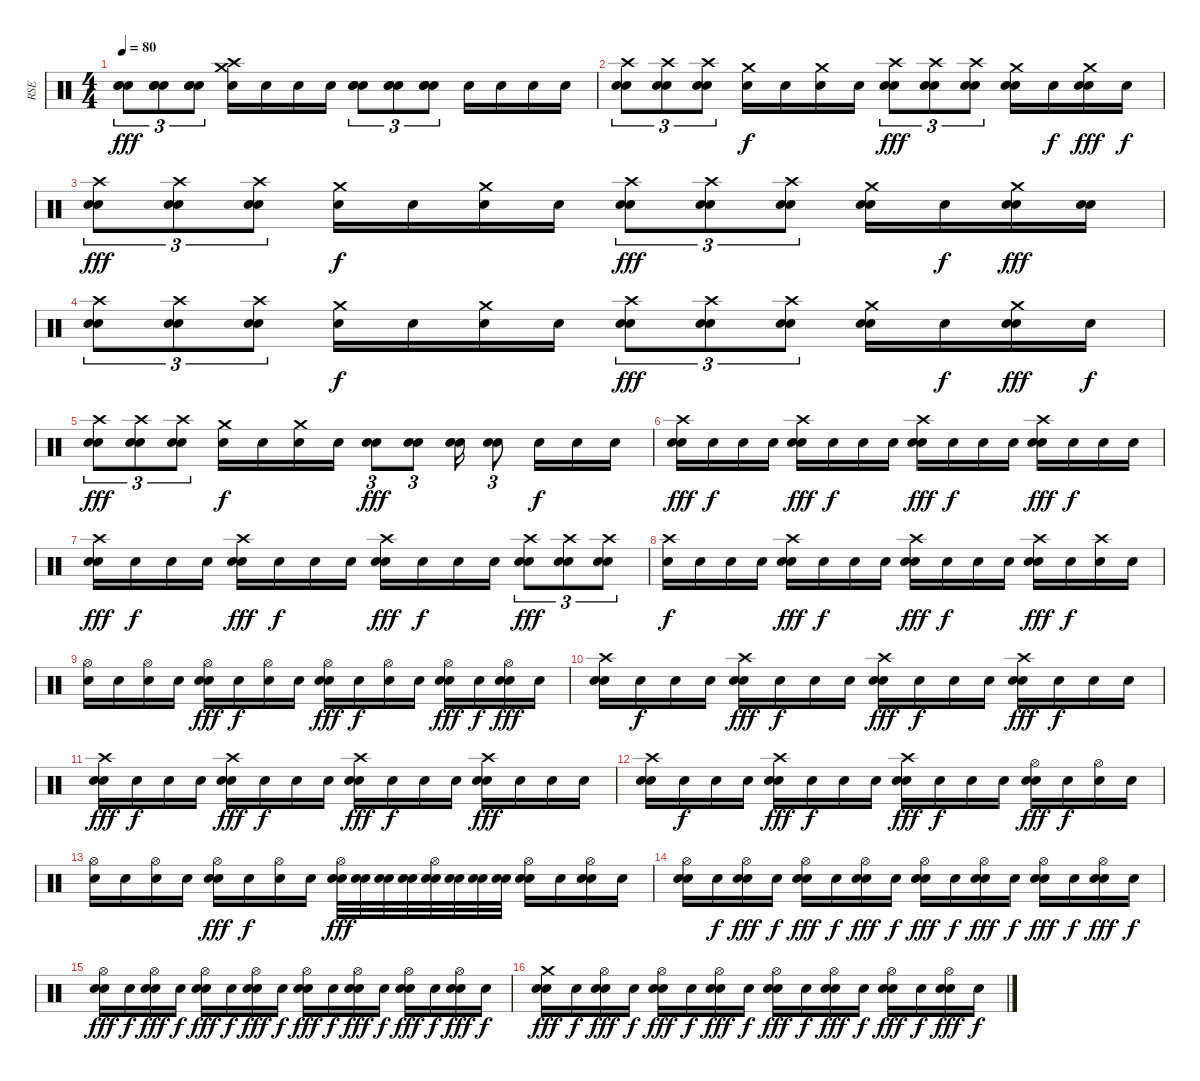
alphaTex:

\track ("RSE" "RSE") {instrument percussion}
\staff
\articulation defaults
\ts (4 4)
\tempo 80
\clef neutral
\ks c
("Snare (hit) 2" "Electric Snare (hit)" "Snare (hit)").8{tu (3 2) dy fff} ("Snare (hit) 2" "Electric Snare (hit)" "Snare (hit)").8{tu (3 2)} ("Snare (hit) 2" "Electric Snare (hit)" "Snare (hit)").8{tu (3 2)} ("Crash high (hit)" "Crash medium (hit)" "Snare (hit)").16 "Snare (hit)".16 "Snare (hit)".16 "Snare (hit)".16 ("Snare (hit) 2" "Electric Snare (hit)" "Snare (hit)").8{tu (3 2)} ("Snare (hit) 2" "Electric Snare (hit)" "Snare (hit)").8{tu (3 2)} ("Snare (hit) 2" "Electric Snare (hit)" "Snare (hit)").8{tu (3 2)} "Snare (hit)".16 "Snare (hit)".16 "Snare (hit)".16 "Snare (hit)".16 |
("Crash high (hit)" "Electric Snare (hit)" "Snare (hit)").8{tu (3 2)} ("Crash high (hit)" "Electric Snare (hit)" "Snare (hit)").8{tu (3 2)} ("Crash high (hit)" "Electric Snare (hit)" "Snare (hit)").8{tu (3 2)} ("Crash medium (hit)" "Snare (hit)").16{dy f} "Snare (hit)".16 ("Crash medium (hit)" "Snare (hit)").16 "Snare (hit)".16 ("Crash high (hit)" "Electric Snare (hit)" "Snare (hit)").8{tu (3 2) dy fff} ("Crash high (hit)" "Electric Snare (hit)" "Snare (hit)").8{tu (3 2)} ("Crash high (hit)" "Electric Snare (hit)" "Snare (hit)").8{tu (3 2)} ("Crash medium (hit)" "Electric Snare (hit)" "Snare (hit)").16 "Snare (hit)".16{dy f} ("Crash medium (hit)" "Electric Snare (hit)" "Snare (hit)").16{dy fff} "Snare (hit)".16{dy f} |
("Crash high (hit)" "Electric Snare (hit)" "Snare (hit)").8{tu (3 2) dy fff} ("Crash high (hit)" "Electric Snare (hit)" "Snare (hit)").8{tu (3 2)} ("Crash high (hit)" "Electric Snare (hit)" "Snare (hit)").8{tu (3 2)} ("Crash medium (hit)" "Snare (hit)").16{dy f} "Snare (hit)".16 ("Crash medium (hit)" "Snare (hit)").16 "Snare (hit)".16 ("Crash high (hit)" "Electric Snare (hit)" "Snare (hit)").8{tu (3 2) dy fff} ("Crash high (hit)" "Electric Snare (hit)" "Snare (hit)").8{tu (3 2)} ("Crash high (hit)" "Electric Snare (hit)" "Snare (hit)").8{tu (3 2)} ("Crash medium (hit)" "Electric Snare (hit)" "Snare (hit)").16 "Snare (hit)".16{dy f} ("Crash medium (hit)" "Electric Snare (hit)" "Snare (hit)").16{dy fff} ("Electric Snare (hit)" "Snare (hit)").16 |
("Crash high (hit)" "Electric Snare (hit)" "Snare (hit)").8{tu (3 2)} ("Crash high (hit)" "Electric Snare (hit)" "Snare (hit)").8{tu (3 2)} ("Crash high (hit)" "Electric Snare (hit)" "Snare (hit)").8{tu (3 2)} ("Crash medium (hit)" "Snare (hit)").16{dy f} "Snare (hit)".16 ("Crash medium (hit)" "Snare (hit)").16 "Snare (hit)".16 ("Crash high (hit)" "Electric Snare (hit)" "Snare (hit)").8{tu (3 2) dy fff} ("Crash high (hit)" "Electric Snare (hit)" "Snare (hit)").8{tu (3 2)} ("Crash high (hit)" "Electric Snare (hit)" "Snare (hit)").8{tu (3 2)} ("Crash medium (hit)" "Electric Snare (hit)" "Snare (hit)").16 "Snare (hit)".16{dy f} ("Crash medium (hit)" "Electric Snare (hit)" "Snare (hit)").16{dy fff} "Snare (hit)".16{dy f} |
("Crash high (hit)" "Electric Snare (hit)" "Snare (hit)").8{tu (3 2) dy fff} ("Crash high (hit)" "Electric Snare (hit)" "Snare (hit)").8{tu (3 2)} ("Crash high (hit)" "Electric Snare (hit)" "Snare (hit)").8{tu (3 2)} ("Crash medium (hit)" "Snare (hit)").16{dy f} "Snare (hit)".16 ("Crash medium (hit)" "Snare (hit)").16 "Snare (hit)".16 ("Electric Snare (hit)" "Snare (hit)").8{tu (3 2) dy fff} ("Electric Snare (hit)" "Snare (hit)").8{tu (3 2)} ("Electric Snare (hit)" "Snare (hit)").16 ("Electric Snare (hit)" "Snare (hit)").8{tu (3 2)} "Snare (hit)".16{dy f} "Snare (hit)".16 "Snare (hit)".16 |
("Crash high (hit)" "Electric Snare (hit)" "Snare (hit)").16{dy fff} "Snare (hit)".16{dy f} "Snare (hit)".16 "Snare (hit)".16 ("Crash high (hit)" "Electric Snare (hit)" "Snare (hit)").16{dy fff} "Snare (hit)".16{dy f} "Snare (hit)".16 "Snare (hit)".16 ("Crash high (hit)" "Electric Snare (hit)" "Snare (hit)").16{dy fff} "Snare (hit)".16{dy f} "Snare (hit)".16 "Snare (hit)".16 ("Crash high (hit)" "Electric Snare (hit)" "Snare (hit)").16{dy fff} "Snare (hit)".16{dy f} "Snare (hit)".16 "Snare (hit)".16 |
("Crash high (hit)" "Electric Snare (hit)" "Snare (hit)").16{dy fff} "Snare (hit)".16{dy f} "Snare (hit)".16 "Snare (hit)".16 ("Crash high (hit)" "Electric Snare (hit)" "Snare (hit)").16{dy fff} "Snare (hit)".16{dy f} "Snare (hit)".16 "Snare (hit)".16 ("Crash high (hit)" "Electric Snare (hit)" "Snare (hit)").16{dy fff} "Snare (hit)".16{dy f} "Snare (hit)".16 "Snare (hit)".16 ("Crash high (hit)" "Electric Snare (hit)" "Snare (hit)").8{tu (3 2) dy fff} ("Crash high (hit)" "Electric Snare (hit)" "Snare (hit)").8{tu (3 2)} ("Crash high (hit)" "Electric Snare (hit)" "Snare (hit)").8{tu (3 2)} |
("Crash high (hit)" "Snare (hit)").16{dy f} "Snare (hit)".16 "Snare (hit)".16 "Snare (hit)".16 ("Crash high (hit)" "Electric Snare (hit)" "Snare (hit)").16{dy fff} "Snare (hit)".16{dy f} "Snare (hit)".16 "Snare (hit)".16 ("Crash high (hit)" "Electric Snare (hit)" "Snare (hit)").16{dy fff} "Snare (hit)".16{dy f} "Snare (hit)".16 "Snare (hit)".16 ("Crash high (hit)" "Electric Snare (hit)" "Snare (hit)").16{dy fff} "Snare (hit)".16{dy f} ("Crash high (hit)" "Snare (hit)").16 "Snare (hit)".16 |
("Hi-Hat (open)" "Snare (hit)").16 "Snare (hit)".16 ("Hi-Hat (open)" "Snare (hit)").16 "Snare (hit)".16 ("Hi-Hat (open)" "Electric Snare (hit)" "Snare (hit)").16{dy fff} "Snare (hit)".16{dy f} ("Hi-Hat (open)" "Snare (hit)").16 "Snare (hit)".16 ("Hi-Hat (open)" "Electric Snare (hit)" "Snare (hit)").16{dy fff} "Snare (hit)".16{dy f} ("Hi-Hat (open)" "Snare (hit)").16 "Snare (hit)".16 ("Hi-Hat (open)" "Electric Snare (hit)" "Snare (hit)").16{dy fff} "Snare (hit)".16{dy f} ("Hi-Hat (open)" "Electric Snare (hit)" "Snare (hit)").16{dy fff} "Snare (hit)".16 |
("Crash high (hit)" "Electric Snare (hit)" "Snare (hit)").16 "Snare (hit)".16{dy f} "Snare (hit)".16 "Snare (hit)".16 ("Crash high (hit)" "Electric Snare (hit)" "Snare (hit)").16{dy fff} "Snare (hit)".16{dy f} "Snare (hit)".16 "Snare (hit)".16 ("Crash high (hit)" "Electric Snare (hit)" "Snare (hit)").16{dy fff} "Snare (hit)".16{dy f} "Snare (hit)".16 "Snare (hit)".16 ("Crash high (hit)" "Electric Snare (hit)" "Snare (hit)").16{dy fff} "Snare (hit)".16{dy f} "Snare (hit)".16 "Snare (hit)".16 |
("Crash high (hit)" "Electric Snare (hit)" "Snare (hit)").16{dy fff} "Snare (hit)".16{dy f} "Snare (hit)".16 "Snare (hit)".16 ("Crash high (hit)" "Electric Snare (hit)" "Snare (hit)").16{dy fff} "Snare (hit)".16{dy f} "Snare (hit)".16 "Snare (hit)".16 ("Crash high (hit)" "Electric Snare (hit)" "Snare (hit)").16{dy fff} "Snare (hit)".16{dy f} "Snare (hit)".16 "Snare (hit)".16 ("Crash high (hit)" "Electric Snare (hit)" "Snare (hit)").16{dy fff} "Snare (hit)".16 "Snare (hit)".16 "Snare (hit)".16 |
("Crash high (hit)" "Electric Snare (hit)" "Snare (hit)").16 "Snare (hit)".16{dy f} "Snare (hit)".16 "Snare (hit)".16 ("Crash high (hit)" "Electric Snare (hit)" "Snare (hit)").16{dy fff} "Snare (hit)".16{dy f} "Snare (hit)".16 "Snare (hit)".16 ("Crash high (hit)" "Electric Snare (hit)" "Snare (hit)").16{dy fff} "Snare (hit)".16{dy f} "Snare (hit)".16 "Snare (hit)".16 ("Hi-Hat (open)" "Electric Snare (hit)" "Snare (hit)").16{dy fff} "Snare (hit)".16{dy f} ("Hi-Hat (open)" "Snare (hit)").16 "Snare (hit)".16 |
("Hi-Hat (open)" "Snare (hit)").16 "Snare (hit)".16 ("Hi-Hat (open)" "Snare (hit)").16 "Snare (hit)".16 ("Hi-Hat (open)" "Electric Snare (hit)" "Snare (hit)").16{dy fff} "Snare (hit)".16{dy f} ("Hi-Hat (open)" "Snare (hit)").16 "Snare (hit)".16 ("Hi-Hat (open)" "Electric Snare (hit)" "Snare (hit)").32{dy fff} ("Electric Snare (hit)" "Snare (hit)").32 ("Electric Snare (hit)" "Snare (hit)").32 ("Electric Snare (hit)" "Snare (hit)").32 ("Hi-Hat (open)" "Electric Snare (hit)" "Snare (hit)").32 ("Electric Snare (hit)" "Snare (hit)").32 ("Electric Snare (hit)" "Snare (hit)").32 ("Electric Snare (hit)" "Snare (hit)").32 ("Hi-Hat (open)" "Electric Snare (hit)" "Snare (hit)").16 "Snare (hit)".16 ("Hi-Hat (open)" "Electric Snare (hit)" "Snare (hit)").16 "Snare (hit)".16 |
("Hi-Hat (open)" "Electric Snare (hit)" "Snare (hit)").16 "Snare (hit)".16{dy f} ("Hi-Hat (open)" "Electric Snare (hit)" "Snare (hit)").16{dy fff} "Snare (hit)".16{dy f} ("Hi-Hat (open)" "Electric Snare (hit)" "Snare (hit)").16{dy fff} "Snare (hit)".16{dy f} ("Hi-Hat (open)" "Electric Snare (hit)" "Snare (hit)").16{dy fff} "Snare (hit)".16{dy f} ("Hi-Hat (open)" "Electric Snare (hit)" "Snare (hit)").16{dy fff} "Snare (hit)".16{dy f} ("Hi-Hat (open)" "Electric Snare (hit)" "Snare (hit)").16{dy fff} "Snare (hit)".16{dy f} ("Hi-Hat (open)" "Electric Snare (hit)" "Snare (hit)").16{dy fff} "Snare (hit)".16{dy f} ("Hi-Hat (open)" "Electric Snare (hit)" "Snare (hit)").16{dy fff} "Snare (hit)".16{dy f} |
("Hi-Hat (open)" "Electric Snare (hit)" "Snare (hit)").16{dy fff} "Snare (hit)".16{dy f} ("Hi-Hat (open)" "Electric Snare (hit)" "Snare (hit)").16{dy fff} "Snare (hit)".16{dy f} ("Hi-Hat (open)" "Electric Snare (hit)" "Snare (hit)").16{dy fff} "Snare (hit)".16{dy f} ("Hi-Hat (open)" "Electric Snare (hit)" "Snare (hit)").16{dy fff} "Snare (hit)".16{dy f} ("Hi-Hat (open)" "Electric Snare (hit)" "Snare (hit)").16{dy fff} "Snare (hit)".16{dy f} ("Hi-Hat (open)" "Electric Snare (hit)" "Snare (hit)").16{dy fff} "Snare (hit)".16{dy f} ("Hi-Hat (open)" "Electric Snare (hit)" "Snare (hit)").16{dy fff} "Snare (hit)".16{dy f} ("Hi-Hat (open)" "Electric Snare (hit)" "Snare (hit)").16{dy fff} "Snare (hit)".16{dy f} |
("Crash medium (hit)" "Electric Snare (hit)" "Snare (hit)").16{dy fff} "Snare (hit)".16{dy f} ("Hi-Hat (open)" "Electric Snare (hit)" "Snare (hit)").16{dy fff} "Snare (hit)".16{dy f} ("Hi-Hat (open)" "Electric Snare (hit)" "Snare (hit)").16{dy fff} "Snare (hit)".16{dy f} ("Hi-Hat (open)" "Electric Snare (hit)" "Snare (hit)").16{dy fff} "Snare (hit)".16{dy f} ("Hi-Hat (open)" "Electric Snare (hit)" "Snare (hit)").16{dy fff} "Snare (hit)".16{dy f} ("Hi-Hat (open)" "Electric Snare (hit)" "Snare (hit)").16{dy fff} "Snare (hit)".16{dy f} ("Hi-Hat (open)" "Electric Snare (hit)" "Snare (hit)").16{dy fff} "Snare (hit)".16{dy f} ("Hi-Hat (open)" "Electric Snare (hit)" "Snare (hit)").16{dy fff} "Snare (hit)".16{dy f}
